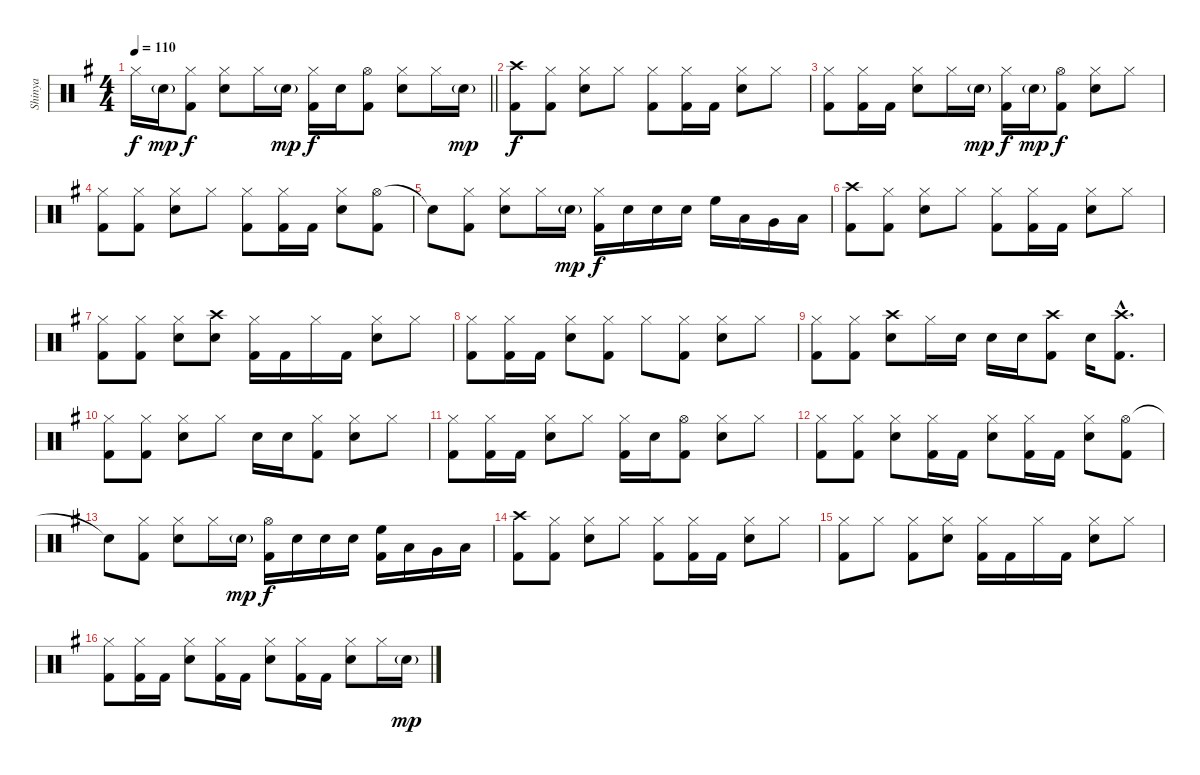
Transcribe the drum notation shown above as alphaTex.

\track ("Shinya" "Shinya") {instrument percussion}
\staff {score}
\articulation defaults
\ts (4 4)
\tempo 110
\clef neutral
\barLineRight lightlight
\ks g "Hi-Hat (closed)".16{dy f} "Electric Snare (hit)"{g}.16{dy mp}
("Hi-Hat (closed)" "Kick (hit) 2").8{dy f} ("Hi-Hat (closed)" "Electric Snare (hit)").8 "Hi-Hat (closed)".16 "Electric Snare (hit)"{g}.16{dy mp} ("Hi-Hat (closed)" "Kick (hit) 2").16{dy f} "Electric Snare (hit)".16 ("Hi-Hat (open)" "Kick (hit) 2").8 ("Hi-Hat (closed)" "Electric Snare (hit)").8 "Hi-Hat (closed)".16 "Electric Snare (hit)"{g}.16{dy mp} |
("Crash high (hit)" "Kick (hit) 2").8{dy f} ("Hi-Hat (closed)" "Kick (hit) 2").8 ("Hi-Hat (closed)" "Electric Snare (hit)").8 "Hi-Hat (closed)".8 ("Hi-Hat (closed)" "Kick (hit) 2").8 ("Hi-Hat (closed)" "Kick (hit) 2").16 "Kick (hit) 2".16 ("Hi-Hat (closed)" "Electric Snare (hit)").8 "Hi-Hat (closed)".8 |
("Hi-Hat (closed)" "Kick (hit) 2").8 ("Hi-Hat (closed)" "Kick (hit) 2").16 "Kick (hit) 2".16 ("Hi-Hat (closed)" "Electric Snare (hit)").8 "Hi-Hat (closed)".16 "Electric Snare (hit)"{g}.16{dy mp} ("Hi-Hat (closed)" "Kick (hit) 2").16{dy f} "Electric Snare (hit)"{g}.16{dy mp} ("Hi-Hat (open)" "Kick (hit) 2").8{dy f} ("Hi-Hat (closed)" "Electric Snare (hit)").8 "Hi-Hat (closed)".8 |
("Hi-Hat (closed)" "Kick (hit) 2").8 ("Hi-Hat (closed)" "Kick (hit) 2").8 ("Hi-Hat (closed)" "Electric Snare (hit)").8 "Hi-Hat (closed)".8 ("Hi-Hat (closed)" "Kick (hit) 2").8 ("Hi-Hat (closed)" "Kick (hit) 2").16 "Kick (hit) 2".16 ("Hi-Hat (closed)" "Electric Snare (hit)").8 ("Hi-Hat (open)" "Kick (hit) 2").8 |
"Snare (hit)"{t}.8 ("Hi-Hat (closed)" "Kick (hit) 2").8 ("Hi-Hat (closed)" "Electric Snare (hit)").8 "Hi-Hat (closed)".16 "Electric Snare (hit)"{g}.16{dy mp} ("Hi-Hat (closed)" "Kick (hit) 2").16{dy f} "Electric Snare (hit)".16 "Electric Snare (hit)".16 "Electric Snare (hit)".16 "High Floor Tom (hit)".16 "Low Tom (hit)".16 "Very Low Tom (hit)".16 "Low Floor Tom (hit)".16 |
("Crash high (hit)" "Kick (hit) 2").8 ("Hi-Hat (closed)" "Kick (hit) 2").8 ("Hi-Hat (closed)" "Electric Snare (hit)").8 "Hi-Hat (closed)".8 ("Hi-Hat (closed)" "Kick (hit) 2").8 ("Hi-Hat (closed)" "Kick (hit) 2").16 "Kick (hit) 2".16 ("Hi-Hat (closed)" "Electric Snare (hit)").8 "Hi-Hat (closed)".8 |
("Hi-Hat (closed)" "Kick (hit) 2").8 ("Hi-Hat (closed)" "Kick (hit) 2").8 ("Hi-Hat (closed)" "Electric Snare (hit)").8 ("Crash high (hit)" "Electric Snare (hit)").8 ("Hi-Hat (closed)" "Kick (hit) 2").16 "Kick (hit) 2".16 "Hi-Hat (closed)".16 "Kick (hit) 2".16 ("Hi-Hat (closed)" "Electric Snare (hit)").8 "Hi-Hat (closed)".8 |
("Hi-Hat (closed)" "Kick (hit) 2").8 ("Hi-Hat (closed)" "Kick (hit) 2").16 "Kick (hit) 2".16 ("Hi-Hat (closed)" "Electric Snare (hit)").8 ("Hi-Hat (closed)" "Kick (hit) 2").8 "Hi-Hat (closed)".8 ("Hi-Hat (closed)" "Kick (hit) 2").8 ("Hi-Hat (closed)" "Electric Snare (hit)").8 "Hi-Hat (closed)".8 |
("Hi-Hat (closed)" "Kick (hit) 2").8 ("Hi-Hat (closed)" "Kick (hit) 2").8 ("Crash high (hit)" "Electric Snare (hit)").8 "Hi-Hat (closed)".16 "Electric Snare (hit)".16 "Electric Snare (hit)".16 "Electric Snare (hit)".16 ("Crash high (hit)" "Kick (hit) 2").8 "Electric Snare (hit)".16 ("Crash high (hit)"{hac} "Kick (hit) 2"{hac}).8{d} |
("Hi-Hat (closed)" "Kick (hit) 2").8 ("Hi-Hat (closed)" "Kick (hit) 2").8 ("Hi-Hat (closed)" "Electric Snare (hit)").8 "Hi-Hat (closed)".8 "Electric Snare (hit)".16 "Electric Snare (hit)".16 ("Hi-Hat (closed)" "Kick (hit) 2").8 ("Hi-Hat (closed)" "Electric Snare (hit)").8 "Hi-Hat (closed)".8 |
("Hi-Hat (closed)" "Kick (hit) 2").8 ("Hi-Hat (closed)" "Kick (hit) 2").16 "Kick (hit) 2".16 ("Hi-Hat (closed)" "Electric Snare (hit)").8 "Hi-Hat (closed)".8 ("Hi-Hat (closed)" "Kick (hit) 2").16 "Electric Snare (hit)".16 ("Hi-Hat (open)" "Kick (hit) 2").8 ("Hi-Hat (closed)" "Electric Snare (hit)").8 "Hi-Hat (closed)".8 |
("Hi-Hat (closed)" "Kick (hit) 2").8 ("Hi-Hat (closed)" "Kick (hit) 2").8 ("Hi-Hat (closed)" "Electric Snare (hit)").8 ("Hi-Hat (closed)" "Kick (hit) 2").16 "Kick (hit) 2".16 ("Hi-Hat (closed)" "Electric Snare (hit)").8 ("Hi-Hat (closed)" "Kick (hit) 2").16 "Kick (hit) 2".16 ("Hi-Hat (closed)" "Electric Snare (hit)").8 ("Hi-Hat (open)" "Kick (hit) 2").8 |
"Snare (hit)"{t}.8 ("Hi-Hat (closed)" "Kick (hit) 2").8 ("Hi-Hat (closed)" "Electric Snare (hit)").8 "Hi-Hat (closed)".16 "Electric Snare (hit)"{g}.16{dy mp} ("Hi-Hat (open)" "Kick (hit) 2").16{dy f} "Electric Snare (hit)".16 "Electric Snare (hit)".16 "Electric Snare (hit)".16 ("High Floor Tom (hit)" "Kick (hit) 2").16 "Low Tom (hit)".16 "Very Low Tom (hit)".16 "Low Floor Tom (hit)".16 |
("Crash high (hit)" "Kick (hit) 2").8 ("Hi-Hat (closed)" "Kick (hit) 2").8 ("Hi-Hat (closed)" "Electric Snare (hit)").8 "Hi-Hat (closed)".8 ("Hi-Hat (closed)" "Kick (hit) 2").8 ("Hi-Hat (closed)" "Kick (hit) 2").16 "Kick (hit) 2".16 ("Hi-Hat (closed)" "Electric Snare (hit)").8 "Hi-Hat (closed)".8 |
("Hi-Hat (closed)" "Kick (hit) 2").8 "Hi-Hat (closed)".8 ("Hi-Hat (closed)" "Kick (hit) 2").8 ("Hi-Hat (closed)" "Electric Snare (hit)").8 ("Hi-Hat (closed)" "Kick (hit) 2").16 "Kick (hit) 2".16 "Hi-Hat (closed)".16 "Kick (hit) 2".16 ("Hi-Hat (closed)" "Electric Snare (hit)").8 "Hi-Hat (closed)".8 |
("Hi-Hat (closed)" "Kick (hit) 2").8 ("Hi-Hat (closed)" "Kick (hit) 2").16 "Kick (hit) 2".16 ("Hi-Hat (closed)" "Electric Snare (hit)").8 ("Hi-Hat (closed)" "Kick (hit) 2").16 "Kick (hit) 2".16 ("Hi-Hat (closed)" "Electric Snare (hit)").8 ("Hi-Hat (closed)" "Kick (hit) 2").16 "Kick (hit) 2".16 ("Hi-Hat (closed)" "Electric Snare (hit)").8 "Hi-Hat (closed)".16 "Electric Snare (hit)"{g}.16{dy mp}
